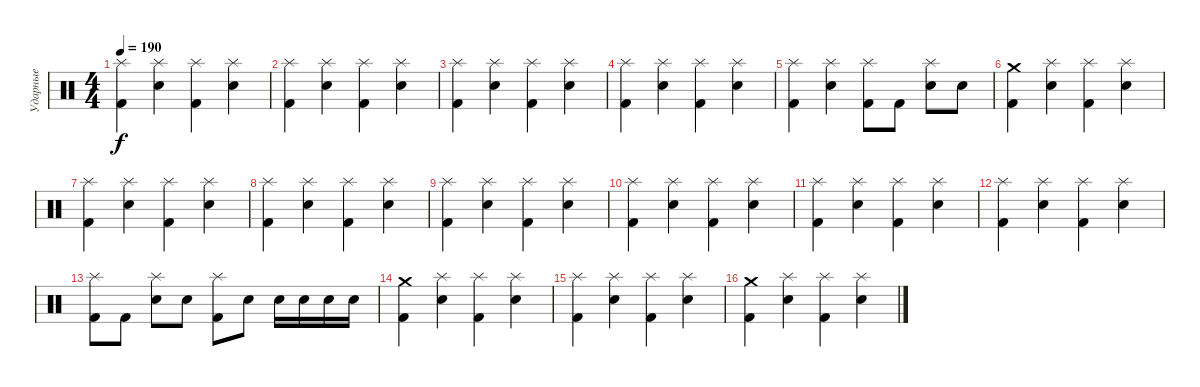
\track ("Ударные" "Ударные") {instrument percussion}
\staff {score}
\articulation defaults
\ts (4 4)
\tempo 190
\clef neutral
\ks c
("Splash (hit)" "Kick (hit) 2").4{dy f} ("Splash (hit)" "Snare (hit) 2").4 ("Splash (hit)" "Kick (hit) 2").4 ("Splash (hit)" "Snare (hit) 2").4 |
("Splash (hit)" "Kick (hit) 2").4 ("Splash (hit)" "Snare (hit) 2").4 ("Splash (hit)" "Kick (hit) 2").4 ("Splash (hit)" "Snare (hit) 2").4 |
("Splash (hit)" "Kick (hit) 2").4 ("Splash (hit)" "Snare (hit) 2").4 ("Splash (hit)" "Kick (hit) 2").4 ("Splash (hit)" "Snare (hit) 2").4 |
("Splash (hit)" "Kick (hit) 2").4 ("Splash (hit)" "Snare (hit) 2").4 ("Splash (hit)" "Kick (hit) 2").4 ("Splash (hit)" "Snare (hit) 2").4 |
("Splash (hit)" "Kick (hit) 2").4 ("Splash (hit)" "Snare (hit) 2").4 ("Splash (hit)" "Kick (hit) 2").8 "Kick (hit) 2".8 ("Splash (hit)" "Snare (hit) 2").8 "Snare (hit) 2".8 |
("Crash medium (hit)" "Kick (hit) 2").4 ("Splash (hit)" "Snare (hit) 2").4 ("Splash (hit)" "Kick (hit) 2").4 ("Splash (hit)" "Snare (hit) 2").4 |
("Splash (hit)" "Kick (hit) 2").4 ("Splash (hit)" "Snare (hit) 2").4 ("Splash (hit)" "Kick (hit) 2").4 ("Splash (hit)" "Snare (hit) 2").4 |
("Splash (hit)" "Kick (hit) 2").4 ("Splash (hit)" "Snare (hit) 2").4 ("Splash (hit)" "Kick (hit) 2").4 ("Splash (hit)" "Snare (hit) 2").4 |
("Splash (hit)" "Kick (hit) 2").4 ("Splash (hit)" "Snare (hit) 2").4 ("Splash (hit)" "Kick (hit) 2").4 ("Splash (hit)" "Snare (hit) 2").4 |
("Splash (hit)" "Kick (hit) 2").4 ("Splash (hit)" "Snare (hit) 2").4 ("Splash (hit)" "Kick (hit) 2").4 ("Splash (hit)" "Snare (hit) 2").4 |
("Splash (hit)" "Kick (hit) 2").4 ("Splash (hit)" "Snare (hit) 2").4 ("Splash (hit)" "Kick (hit) 2").4 ("Splash (hit)" "Snare (hit) 2").4 |
("Splash (hit)" "Kick (hit) 2").4 ("Splash (hit)" "Snare (hit) 2").4 ("Splash (hit)" "Kick (hit) 2").4 ("Splash (hit)" "Snare (hit) 2").4 |
("Splash (hit)" "Kick (hit) 2").8 "Kick (hit) 2".8 ("Splash (hit)" "Snare (hit) 2").8 "Snare (hit) 2".8 ("Splash (hit)" "Kick (hit) 2").8 "Snare (hit) 2".8 "Snare (hit) 2".16 "Snare (hit) 2".16 "Snare (hit) 2".16 "Snare (hit) 2".16 |
("Crash medium (hit)" "Kick (hit) 2").4 ("Splash (hit)" "Snare (hit) 2").4 ("Splash (hit)" "Kick (hit) 2").4 ("Splash (hit)" "Snare (hit) 2").4 |
("Splash (hit)" "Kick (hit) 2").4 ("Splash (hit)" "Snare (hit) 2").4 ("Splash (hit)" "Kick (hit) 2").4 ("Splash (hit)" "Snare (hit) 2").4 |
("Crash medium (hit)" "Kick (hit) 2").4 ("Splash (hit)" "Snare (hit) 2").4 ("Splash (hit)" "Kick (hit) 2").4 ("Splash (hit)" "Snare (hit) 2").4
